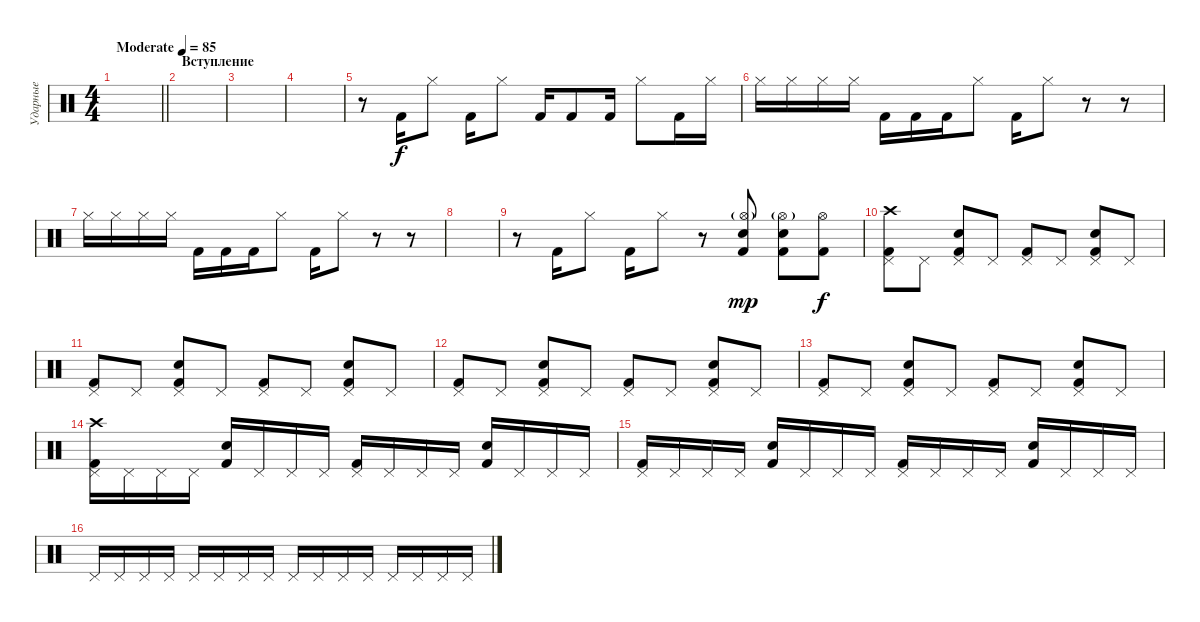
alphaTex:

\track ("Ударные" "Ударные") {instrument percussion}
\staff {score}
\articulation defaults
\ts (4 4)
\tempo (85 "Moderate")
\clef neutral
\barLineRight lightlight
\ks c
|
\section ("" "Вступление")
|
|
|
r.8 "Kick (hit) 2".16 "Hi-Hat (closed)".8 "Kick (hit) 2".16 "Hi-Hat (closed)".8 "Kick (hit) 2".16 "Kick (hit) 2".8 "Kick (hit) 2".16 "Hi-Hat (closed)".8 "Kick (hit) 2".16 "Hi-Hat (closed)".16 |
"Hi-Hat (closed)".16 "Hi-Hat (closed)".16 "Hi-Hat (closed)".16 "Hi-Hat (closed)".16 "Kick (hit) 2".16 "Kick (hit) 2".16 "Kick (hit) 2".16 "Hi-Hat (closed)".8 "Kick (hit) 2".16 "Hi-Hat (closed)".8 r.8 r.8 |
"Hi-Hat (closed)".16 "Hi-Hat (closed)".16 "Hi-Hat (closed)".16 "Hi-Hat (closed)".16 "Kick (hit) 2".16 "Kick (hit) 2".16 "Kick (hit) 2".16 "Hi-Hat (closed)".8 "Kick (hit) 2".16 "Hi-Hat (closed)".8 r.8 r.8 |
|
r.8 "Kick (hit) 2".16 "Hi-Hat (closed)".8 "Kick (hit) 2".16 "Hi-Hat (closed)".8 r.8 ("Hi-Hat (open)"{g} "Electric Snare (hit)" "Kick (hit) 2").8{dy mp} ("Hi-Hat (open)"{g} "Electric Snare (hit)" "Kick (hit) 2").8 ("Hi-Hat (open)" "Kick (hit) 2").8{dy f} |
("Pedal Hi-Hat (hit)" "Crash high (hit)" "Kick (hit) 2").8 "Pedal Hi-Hat (hit)".8 ("Pedal Hi-Hat (hit)" "Electric Snare (hit)" "Kick (hit) 2").8 "Pedal Hi-Hat (hit)".8 ("Pedal Hi-Hat (hit)" "Kick (hit) 2").8 "Pedal Hi-Hat (hit)".8 ("Pedal Hi-Hat (hit)" "Electric Snare (hit)" "Kick (hit) 2").8 "Pedal Hi-Hat (hit)".8 |
("Pedal Hi-Hat (hit)" "Kick (hit) 2").8 "Pedal Hi-Hat (hit)".8 ("Pedal Hi-Hat (hit)" "Electric Snare (hit)" "Kick (hit) 2").8 "Pedal Hi-Hat (hit)".8 ("Pedal Hi-Hat (hit)" "Kick (hit) 2").8 "Pedal Hi-Hat (hit)".8 ("Pedal Hi-Hat (hit)" "Electric Snare (hit)" "Kick (hit) 2").8 "Pedal Hi-Hat (hit)".8 |
("Pedal Hi-Hat (hit)" "Kick (hit) 2").8 "Pedal Hi-Hat (hit)".8 ("Pedal Hi-Hat (hit)" "Electric Snare (hit)" "Kick (hit) 2").8 "Pedal Hi-Hat (hit)".8 ("Pedal Hi-Hat (hit)" "Kick (hit) 2").8 "Pedal Hi-Hat (hit)".8 ("Pedal Hi-Hat (hit)" "Electric Snare (hit)" "Kick (hit) 2").8 "Pedal Hi-Hat (hit)".8 |
("Pedal Hi-Hat (hit)" "Kick (hit) 2").8 "Pedal Hi-Hat (hit)".8 ("Pedal Hi-Hat (hit)" "Electric Snare (hit)" "Kick (hit) 2").8 "Pedal Hi-Hat (hit)".8 ("Pedal Hi-Hat (hit)" "Kick (hit) 2").8 "Pedal Hi-Hat (hit)".8 ("Pedal Hi-Hat (hit)" "Electric Snare (hit)" "Kick (hit) 2").8 "Pedal Hi-Hat (hit)".8 |
("Pedal Hi-Hat (hit)" "Crash high (hit)" "Kick (hit) 2").16 "Pedal Hi-Hat (hit)".16 "Pedal Hi-Hat (hit)".16 "Pedal Hi-Hat (hit)".16 ("Electric Snare (hit)" "Kick (hit) 2").16 "Pedal Hi-Hat (hit)".16 "Pedal Hi-Hat (hit)".16 "Pedal Hi-Hat (hit)".16 ("Pedal Hi-Hat (hit)" "Kick (hit) 2").16 "Pedal Hi-Hat (hit)".16 "Pedal Hi-Hat (hit)".16 "Pedal Hi-Hat (hit)".16 ("Electric Snare (hit)" "Kick (hit) 2").16 "Pedal Hi-Hat (hit)".16 "Pedal Hi-Hat (hit)".16 "Pedal Hi-Hat (hit)".16 |
("Pedal Hi-Hat (hit)" "Kick (hit) 2").16 "Pedal Hi-Hat (hit)".16 "Pedal Hi-Hat (hit)".16 "Pedal Hi-Hat (hit)".16 ("Electric Snare (hit)" "Kick (hit) 2").16 "Pedal Hi-Hat (hit)".16 "Pedal Hi-Hat (hit)".16 "Pedal Hi-Hat (hit)".16 ("Pedal Hi-Hat (hit)" "Kick (hit) 2").16 "Pedal Hi-Hat (hit)".16 "Pedal Hi-Hat (hit)".16 "Pedal Hi-Hat (hit)".16 ("Electric Snare (hit)" "Kick (hit) 2").16 "Pedal Hi-Hat (hit)".16 "Pedal Hi-Hat (hit)".16 "Pedal Hi-Hat (hit)".16 |
"Pedal Hi-Hat (hit)".16 "Pedal Hi-Hat (hit)".16 "Pedal Hi-Hat (hit)".16 "Pedal Hi-Hat (hit)".16 "Pedal Hi-Hat (hit)".16 "Pedal Hi-Hat (hit)".16 "Pedal Hi-Hat (hit)".16 "Pedal Hi-Hat (hit)".16 "Pedal Hi-Hat (hit)".16 "Pedal Hi-Hat (hit)".16 "Pedal Hi-Hat (hit)".16 "Pedal Hi-Hat (hit)".16 "Pedal Hi-Hat (hit)".16 "Pedal Hi-Hat (hit)".16 "Pedal Hi-Hat (hit)".16 "Pedal Hi-Hat (hit)".16
